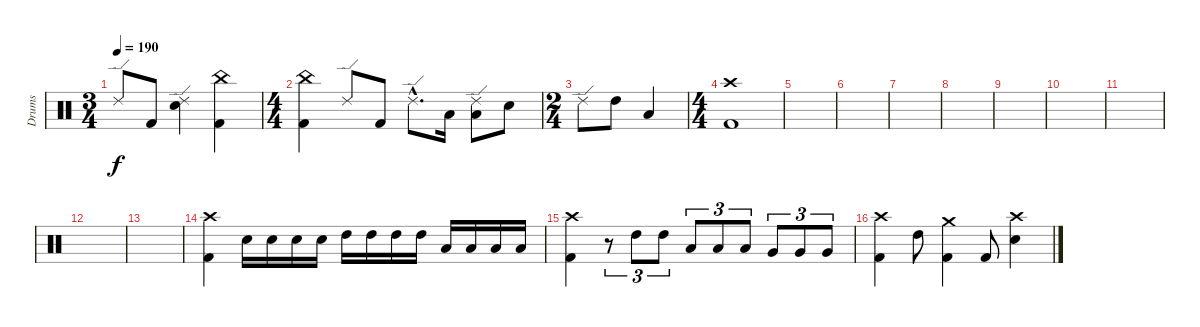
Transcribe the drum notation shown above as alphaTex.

\track ("Drums" "Drums") {instrument percussion}
\staff {score}
\articulation defaults
\ts (3 4)
\tempo 190
\clef neutral
\ks c "Ride (edge) 2".8{dy f} "Kick (hit) 2".8
("Ride (edge) 2" "Snare (hit) 2").4 ("China (hit)" "Kick (hit) 2").4 |
\ts (4 4)
("China (hit)" "Kick (hit) 2").4 "Ride (edge) 2".8 "Kick (hit) 2".8 "Ride (edge) 2"{hac}.8{d} "Low Tom (hit)".16 ("Ride (edge) 2" "Low Tom (hit)").8 "Snare (hit) 2".8 |
\ts (2 4)
"Ride (edge) 2".8 "High Tom (hit)".8 "Low Tom (hit)".4 |
\ts (4 4)
("Crash high (hit)" "Kick (hit) 2").1 |
|
|
|
|
|
|
|
|
|
\section ("" "")
("Crash high (hit)" "Kick (hit) 2").4 "Snare (hit) 2".16 "Snare (hit) 2".16 "Snare (hit) 2".16 "Snare (hit) 2".16 "High Tom (hit)".16 "High Tom (hit)".16 "High Tom (hit)".16 "High Tom (hit)".16 "Low Tom (hit)".16 "Low Tom (hit)".16 "Low Tom (hit)".16 "Low Tom (hit)".16 |
("Crash high (hit)" "Kick (hit) 2").4 r.8{tu (3 2)} "High Tom (hit)".8{tu (3 2)} "High Tom (hit)".8{tu (3 2)} "Low Tom (hit)".8{tu (3 2)} "Low Tom (hit)".8{tu (3 2)} "Low Tom (hit)".8{tu (3 2)} "Very Low Tom (hit)".8{tu (3 2)} "Very Low Tom (hit)".8{tu (3 2)} "Very Low Tom (hit)".8{tu (3 2)} |
("Crash high (hit)" "Kick (hit) 2").4 "High Tom (hit)".8 ("Crash medium (hit)" "Kick (hit) 2").4 "Kick (hit) 2".8 ("Crash high (hit)" "Snare (hit) 2").4
